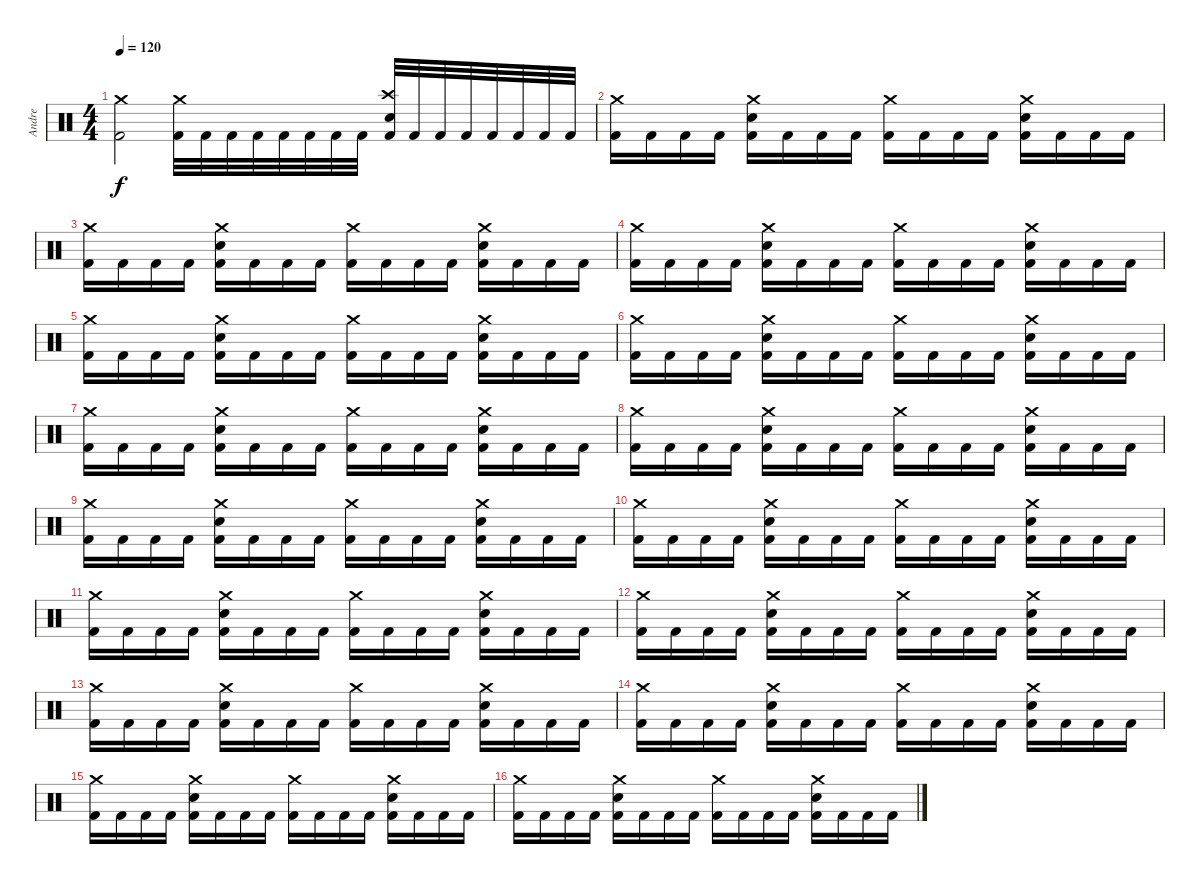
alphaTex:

\track ("Andre" "Andre") {instrument percussion}
\staff {score}
\articulation defaults
\ts (4 4)
\tempo 120
\clef neutral
\ks c
("Crash medium (hit)" "Kick (hit) 2").2{dy f} ("Crash medium (hit)" "Kick (hit) 2").32 "Kick (hit) 2".32 "Kick (hit) 2".32 "Kick (hit) 2".32 "Kick (hit) 2".32 "Kick (hit) 2".32 "Kick (hit) 2".32 "Kick (hit) 2".32 ("Crash high (hit)" "Snare (hit) 2" "Kick (hit) 2").32 "Kick (hit) 2".32 "Kick (hit) 2".32 "Kick (hit) 2".32 "Kick (hit) 2".32 "Kick (hit) 2".32 "Kick (hit) 2".32 "Kick (hit) 2".32 |
("Crash medium (hit)" "Kick (hit) 2").16 "Kick (hit) 2".16 "Kick (hit) 2".16 "Kick (hit) 2".16 ("Crash medium (hit)" "Snare (hit) 2" "Kick (hit) 2").16 "Kick (hit) 2".16 "Kick (hit) 2".16 "Kick (hit) 2".16 ("Crash medium (hit)" "Kick (hit) 2").16 "Kick (hit) 2".16 "Kick (hit) 2".16 "Kick (hit) 2".16 ("Crash medium (hit)" "Snare (hit) 2" "Kick (hit) 2").16 "Kick (hit) 2".16 "Kick (hit) 2".16 "Kick (hit) 2".16 |
("Crash medium (hit)" "Kick (hit) 2").16 "Kick (hit) 2".16 "Kick (hit) 2".16 "Kick (hit) 2".16 ("Crash medium (hit)" "Snare (hit) 2" "Kick (hit) 2").16 "Kick (hit) 2".16 "Kick (hit) 2".16 "Kick (hit) 2".16 ("Crash medium (hit)" "Kick (hit) 2").16 "Kick (hit) 2".16 "Kick (hit) 2".16 "Kick (hit) 2".16 ("Crash medium (hit)" "Snare (hit) 2" "Kick (hit) 2").16 "Kick (hit) 2".16 "Kick (hit) 2".16 "Kick (hit) 2".16 |
("Crash medium (hit)" "Kick (hit) 2").16 "Kick (hit) 2".16 "Kick (hit) 2".16 "Kick (hit) 2".16 ("Crash medium (hit)" "Snare (hit) 2" "Kick (hit) 2").16 "Kick (hit) 2".16 "Kick (hit) 2".16 "Kick (hit) 2".16 ("Crash medium (hit)" "Kick (hit) 2").16 "Kick (hit) 2".16 "Kick (hit) 2".16 "Kick (hit) 2".16 ("Crash medium (hit)" "Snare (hit) 2" "Kick (hit) 2").16 "Kick (hit) 2".16 "Kick (hit) 2".16 "Kick (hit) 2".16 |
("Crash medium (hit)" "Kick (hit) 2").16 "Kick (hit) 2".16 "Kick (hit) 2".16 "Kick (hit) 2".16 ("Crash medium (hit)" "Snare (hit) 2" "Kick (hit) 2").16 "Kick (hit) 2".16 "Kick (hit) 2".16 "Kick (hit) 2".16 ("Crash medium (hit)" "Kick (hit) 2").16 "Kick (hit) 2".16 "Kick (hit) 2".16 "Kick (hit) 2".16 ("Crash medium (hit)" "Snare (hit) 2" "Kick (hit) 2").16 "Kick (hit) 2".16 "Kick (hit) 2".16 "Kick (hit) 2".16 |
("Crash medium (hit)" "Kick (hit) 2").16 "Kick (hit) 2".16 "Kick (hit) 2".16 "Kick (hit) 2".16 ("Crash medium (hit)" "Snare (hit) 2" "Kick (hit) 2").16 "Kick (hit) 2".16 "Kick (hit) 2".16 "Kick (hit) 2".16 ("Crash medium (hit)" "Kick (hit) 2").16 "Kick (hit) 2".16 "Kick (hit) 2".16 "Kick (hit) 2".16 ("Crash medium (hit)" "Snare (hit) 2" "Kick (hit) 2").16 "Kick (hit) 2".16 "Kick (hit) 2".16 "Kick (hit) 2".16 |
("Crash medium (hit)" "Kick (hit) 2").16 "Kick (hit) 2".16 "Kick (hit) 2".16 "Kick (hit) 2".16 ("Crash medium (hit)" "Snare (hit) 2" "Kick (hit) 2").16 "Kick (hit) 2".16 "Kick (hit) 2".16 "Kick (hit) 2".16 ("Crash medium (hit)" "Kick (hit) 2").16 "Kick (hit) 2".16 "Kick (hit) 2".16 "Kick (hit) 2".16 ("Crash medium (hit)" "Snare (hit) 2" "Kick (hit) 2").16 "Kick (hit) 2".16 "Kick (hit) 2".16 "Kick (hit) 2".16 |
("Crash medium (hit)" "Kick (hit) 2").16 "Kick (hit) 2".16 "Kick (hit) 2".16 "Kick (hit) 2".16 ("Crash medium (hit)" "Snare (hit) 2" "Kick (hit) 2").16 "Kick (hit) 2".16 "Kick (hit) 2".16 "Kick (hit) 2".16 ("Crash medium (hit)" "Kick (hit) 2").16 "Kick (hit) 2".16 "Kick (hit) 2".16 "Kick (hit) 2".16 ("Crash medium (hit)" "Snare (hit) 2" "Kick (hit) 2").16 "Kick (hit) 2".16 "Kick (hit) 2".16 "Kick (hit) 2".16 |
("Crash medium (hit)" "Kick (hit) 2").16 "Kick (hit) 2".16 "Kick (hit) 2".16 "Kick (hit) 2".16 ("Crash medium (hit)" "Snare (hit) 2" "Kick (hit) 2").16 "Kick (hit) 2".16 "Kick (hit) 2".16 "Kick (hit) 2".16 ("Crash medium (hit)" "Kick (hit) 2").16 "Kick (hit) 2".16 "Kick (hit) 2".16 "Kick (hit) 2".16 ("Crash medium (hit)" "Snare (hit) 2" "Kick (hit) 2").16 "Kick (hit) 2".16 "Kick (hit) 2".16 "Kick (hit) 2".16 |
("Crash medium (hit)" "Kick (hit) 2").16 "Kick (hit) 2".16 "Kick (hit) 2".16 "Kick (hit) 2".16 ("Crash medium (hit)" "Snare (hit) 2" "Kick (hit) 2").16 "Kick (hit) 2".16 "Kick (hit) 2".16 "Kick (hit) 2".16 ("Crash medium (hit)" "Kick (hit) 2").16 "Kick (hit) 2".16 "Kick (hit) 2".16 "Kick (hit) 2".16 ("Crash medium (hit)" "Snare (hit) 2" "Kick (hit) 2").16 "Kick (hit) 2".16 "Kick (hit) 2".16 "Kick (hit) 2".16 |
("Crash medium (hit)" "Kick (hit) 2").16 "Kick (hit) 2".16 "Kick (hit) 2".16 "Kick (hit) 2".16 ("Crash medium (hit)" "Snare (hit) 2" "Kick (hit) 2").16 "Kick (hit) 2".16 "Kick (hit) 2".16 "Kick (hit) 2".16 ("Crash medium (hit)" "Kick (hit) 2").16 "Kick (hit) 2".16 "Kick (hit) 2".16 "Kick (hit) 2".16 ("Crash medium (hit)" "Snare (hit) 2" "Kick (hit) 2").16 "Kick (hit) 2".16 "Kick (hit) 2".16 "Kick (hit) 2".16 |
("Crash medium (hit)" "Kick (hit) 2").16 "Kick (hit) 2".16 "Kick (hit) 2".16 "Kick (hit) 2".16 ("Crash medium (hit)" "Snare (hit) 2" "Kick (hit) 2").16 "Kick (hit) 2".16 "Kick (hit) 2".16 "Kick (hit) 2".16 ("Crash medium (hit)" "Kick (hit) 2").16 "Kick (hit) 2".16 "Kick (hit) 2".16 "Kick (hit) 2".16 ("Crash medium (hit)" "Snare (hit) 2" "Kick (hit) 2").16 "Kick (hit) 2".16 "Kick (hit) 2".16 "Kick (hit) 2".16 |
("Crash medium (hit)" "Kick (hit) 2").16 "Kick (hit) 2".16 "Kick (hit) 2".16 "Kick (hit) 2".16 ("Crash medium (hit)" "Snare (hit) 2" "Kick (hit) 2").16 "Kick (hit) 2".16 "Kick (hit) 2".16 "Kick (hit) 2".16 ("Crash medium (hit)" "Kick (hit) 2").16 "Kick (hit) 2".16 "Kick (hit) 2".16 "Kick (hit) 2".16 ("Crash medium (hit)" "Snare (hit) 2" "Kick (hit) 2").16 "Kick (hit) 2".16 "Kick (hit) 2".16 "Kick (hit) 2".16 |
("Crash medium (hit)" "Kick (hit) 2").16 "Kick (hit) 2".16 "Kick (hit) 2".16 "Kick (hit) 2".16 ("Crash medium (hit)" "Snare (hit) 2" "Kick (hit) 2").16 "Kick (hit) 2".16 "Kick (hit) 2".16 "Kick (hit) 2".16 ("Crash medium (hit)" "Kick (hit) 2").16 "Kick (hit) 2".16 "Kick (hit) 2".16 "Kick (hit) 2".16 ("Crash medium (hit)" "Snare (hit) 2" "Kick (hit) 2").16 "Kick (hit) 2".16 "Kick (hit) 2".16 "Kick (hit) 2".16 |
("Crash medium (hit)" "Kick (hit) 2").16 "Kick (hit) 2".16 "Kick (hit) 2".16 "Kick (hit) 2".16 ("Crash medium (hit)" "Snare (hit) 2" "Kick (hit) 2").16 "Kick (hit) 2".16 "Kick (hit) 2".16 "Kick (hit) 2".16 ("Crash medium (hit)" "Kick (hit) 2").16 "Kick (hit) 2".16 "Kick (hit) 2".16 "Kick (hit) 2".16 ("Crash medium (hit)" "Snare (hit) 2" "Kick (hit) 2").16 "Kick (hit) 2".16 "Kick (hit) 2".16 "Kick (hit) 2".16 |
("Crash medium (hit)" "Kick (hit) 2").16 "Kick (hit) 2".16 "Kick (hit) 2".16 "Kick (hit) 2".16 ("Crash medium (hit)" "Snare (hit) 2" "Kick (hit) 2").16 "Kick (hit) 2".16 "Kick (hit) 2".16 "Kick (hit) 2".16 ("Crash medium (hit)" "Kick (hit) 2").16 "Kick (hit) 2".16 "Kick (hit) 2".16 "Kick (hit) 2".16 ("Crash medium (hit)" "Snare (hit) 2" "Kick (hit) 2").16 "Kick (hit) 2".16 "Kick (hit) 2".16 "Kick (hit) 2".16
